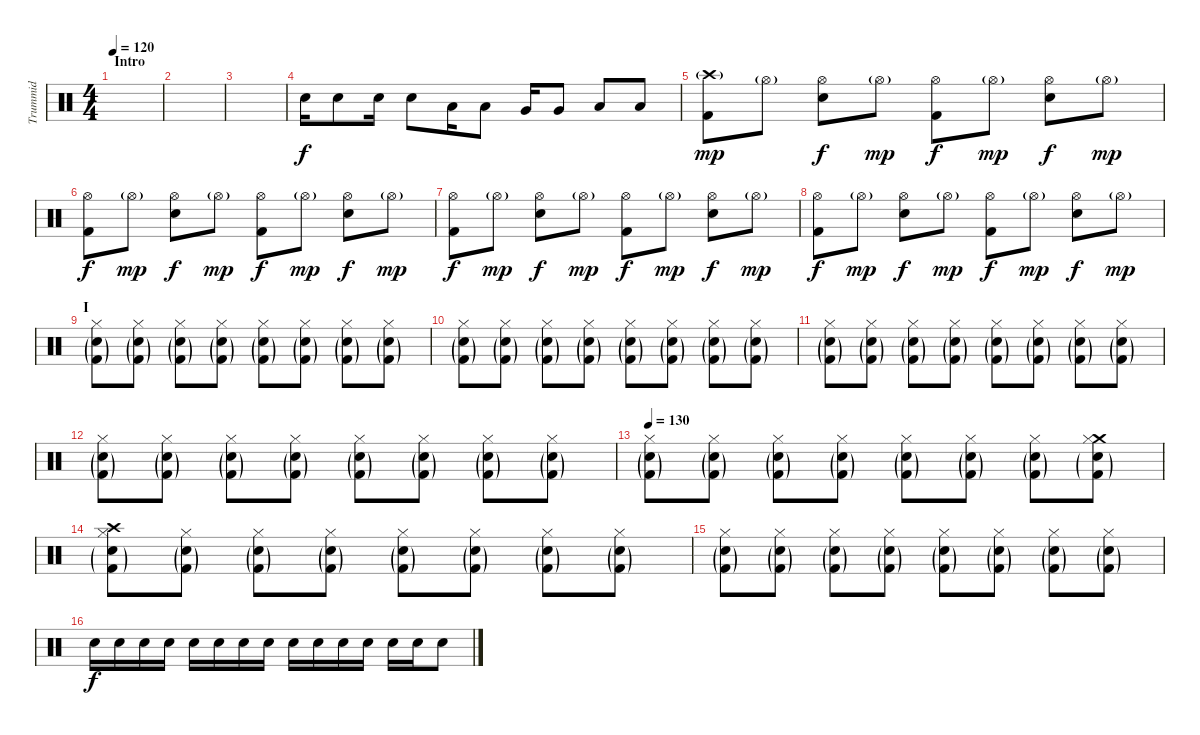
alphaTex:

\track ("Trummid" "Trummid") {instrument percussion}
\staff {score}
\articulation defaults
\ts (4 4)
\section ("" "Intro")
\tempo 120
\clef neutral
\ks c
|
|
|
"Snare (hit) 2".16 "Snare (hit) 2".8 "Snare (hit) 2".16 "Snare (hit) 2".8 "Low Tom (hit)".16 "Low Tom (hit)".8 "Very Low Tom (hit)".16 "Very Low Tom (hit)".8 "Low Tom (hit)".8 "Low Tom (hit)".8 |
("Crash high (hit)"{g} "Kick (hit) 2").8{dy mp} "Hi-Hat (open)"{g}.8 ("Hi-Hat (open)" "Snare (hit) 2").8{dy f} "Hi-Hat (open)"{g}.8{dy mp} ("Hi-Hat (open)" "Kick (hit) 2").8{dy f} "Hi-Hat (open)"{g}.8{dy mp} ("Hi-Hat (open)" "Snare (hit) 2").8{dy f} "Hi-Hat (open)"{g}.8{dy mp} |
("Hi-Hat (open)" "Kick (hit) 2").8{dy f} "Hi-Hat (open)"{g}.8{dy mp} ("Hi-Hat (open)" "Snare (hit) 2").8{dy f} "Hi-Hat (open)"{g}.8{dy mp} ("Hi-Hat (open)" "Kick (hit) 2").8{dy f} "Hi-Hat (open)"{g}.8{dy mp} ("Hi-Hat (open)" "Snare (hit) 2").8{dy f} "Hi-Hat (open)"{g}.8{dy mp} |
("Hi-Hat (open)" "Kick (hit) 2").8{dy f} "Hi-Hat (open)"{g}.8{dy mp} ("Hi-Hat (open)" "Snare (hit) 2").8{dy f} "Hi-Hat (open)"{g}.8{dy mp} ("Hi-Hat (open)" "Kick (hit) 2").8{dy f} "Hi-Hat (open)"{g}.8{dy mp} ("Hi-Hat (open)" "Snare (hit) 2").8{dy f} "Hi-Hat (open)"{g}.8{dy mp} |
("Hi-Hat (open)" "Kick (hit) 2").8{dy f} "Hi-Hat (open)"{g}.8{dy mp} ("Hi-Hat (open)" "Snare (hit) 2").8{dy f} "Hi-Hat (open)"{g}.8{dy mp} ("Hi-Hat (open)" "Kick (hit) 2").8{dy f} "Hi-Hat (open)"{g}.8{dy mp} ("Hi-Hat (open)" "Snare (hit) 2").8{dy f} "Hi-Hat (open)"{g}.8{dy mp} |
\section ("" "I")
("Hi-Hat (closed)" "Snare (hit) 2"{g} "Kick (hit) 2"{g}).8 ("Hi-Hat (closed)" "Snare (hit) 2"{g} "Kick (hit) 2"{g}).8 ("Hi-Hat (closed)" "Snare (hit) 2"{g} "Kick (hit) 2"{g}).8 ("Hi-Hat (closed)" "Snare (hit) 2"{g} "Kick (hit) 2"{g}).8 ("Hi-Hat (closed)" "Snare (hit) 2"{g} "Kick (hit) 2"{g}).8 ("Hi-Hat (closed)" "Snare (hit) 2"{g} "Kick (hit) 2"{g}).8 ("Hi-Hat (closed)" "Snare (hit) 2"{g} "Kick (hit) 2"{g}).8 ("Hi-Hat (closed)" "Snare (hit) 2"{g} "Kick (hit) 2"{g}).8 |
("Hi-Hat (closed)" "Snare (hit) 2"{g} "Kick (hit) 2"{g}).8 ("Hi-Hat (closed)" "Snare (hit) 2"{g} "Kick (hit) 2"{g}).8 ("Hi-Hat (closed)" "Snare (hit) 2"{g} "Kick (hit) 2"{g}).8 ("Hi-Hat (closed)" "Snare (hit) 2"{g} "Kick (hit) 2"{g}).8 ("Hi-Hat (closed)" "Snare (hit) 2"{g} "Kick (hit) 2"{g}).8 ("Hi-Hat (closed)" "Snare (hit) 2"{g} "Kick (hit) 2"{g}).8 ("Hi-Hat (closed)" "Snare (hit) 2"{g} "Kick (hit) 2"{g}).8 ("Hi-Hat (closed)" "Snare (hit) 2"{g} "Kick (hit) 2"{g}).8 |
("Hi-Hat (closed)" "Snare (hit) 2"{g} "Kick (hit) 2"{g}).8 ("Hi-Hat (closed)" "Snare (hit) 2"{g} "Kick (hit) 2"{g}).8 ("Hi-Hat (closed)" "Snare (hit) 2"{g} "Kick (hit) 2"{g}).8 ("Hi-Hat (closed)" "Snare (hit) 2"{g} "Kick (hit) 2"{g}).8 ("Hi-Hat (closed)" "Snare (hit) 2"{g} "Kick (hit) 2"{g}).8 ("Hi-Hat (closed)" "Snare (hit) 2"{g} "Kick (hit) 2"{g}).8 ("Hi-Hat (closed)" "Snare (hit) 2"{g} "Kick (hit) 2"{g}).8 ("Hi-Hat (closed)" "Snare (hit) 2"{g} "Kick (hit) 2"{g}).8 |
("Hi-Hat (closed)" "Snare (hit) 2"{g} "Kick (hit) 2"{g}).8 ("Hi-Hat (closed)" "Snare (hit) 2"{g} "Kick (hit) 2"{g}).8 ("Hi-Hat (closed)" "Snare (hit) 2"{g} "Kick (hit) 2"{g}).8 ("Hi-Hat (closed)" "Snare (hit) 2"{g} "Kick (hit) 2"{g}).8 ("Hi-Hat (closed)" "Snare (hit) 2"{g} "Kick (hit) 2"{g}).8 ("Hi-Hat (closed)" "Snare (hit) 2"{g} "Kick (hit) 2"{g}).8 ("Hi-Hat (closed)" "Snare (hit) 2"{g} "Kick (hit) 2"{g}).8 ("Hi-Hat (closed)" "Snare (hit) 2"{g} "Kick (hit) 2"{g}).8 |
\tempo 130
("Hi-Hat (closed)" "Snare (hit) 2"{g} "Kick (hit) 2"{g}).8 ("Hi-Hat (closed)" "Snare (hit) 2"{g} "Kick (hit) 2"{g}).8 ("Hi-Hat (closed)" "Snare (hit) 2"{g} "Kick (hit) 2"{g}).8 ("Hi-Hat (closed)" "Snare (hit) 2"{g} "Kick (hit) 2"{g}).8 ("Hi-Hat (closed)" "Snare (hit) 2"{g} "Kick (hit) 2"{g}).8 ("Hi-Hat (closed)" "Snare (hit) 2"{g} "Kick (hit) 2"{g}).8 ("Hi-Hat (closed)" "Snare (hit) 2"{g} "Kick (hit) 2"{g}).8 ("Crash medium (hit)" "Hi-Hat (closed)" "Snare (hit) 2"{g} "Kick (hit) 2"{g}).8 |
("Crash high (hit)" "Hi-Hat (closed)" "Snare (hit) 2"{g} "Kick (hit) 2"{g}).8 ("Hi-Hat (closed)" "Snare (hit) 2"{g} "Kick (hit) 2"{g}).8 ("Hi-Hat (closed)" "Snare (hit) 2"{g} "Kick (hit) 2"{g}).8 ("Hi-Hat (closed)" "Snare (hit) 2"{g} "Kick (hit) 2"{g}).8 ("Hi-Hat (closed)" "Snare (hit) 2"{g} "Kick (hit) 2"{g}).8 ("Hi-Hat (closed)" "Snare (hit) 2"{g} "Kick (hit) 2"{g}).8 ("Hi-Hat (closed)" "Snare (hit) 2"{g} "Kick (hit) 2"{g}).8 ("Hi-Hat (closed)" "Snare (hit) 2"{g} "Kick (hit) 2"{g}).8 |
("Hi-Hat (closed)" "Snare (hit) 2"{g} "Kick (hit) 2"{g}).8 ("Hi-Hat (closed)" "Snare (hit) 2"{g} "Kick (hit) 2"{g}).8 ("Hi-Hat (closed)" "Snare (hit) 2"{g} "Kick (hit) 2"{g}).8 ("Hi-Hat (closed)" "Snare (hit) 2"{g} "Kick (hit) 2"{g}).8 ("Hi-Hat (closed)" "Snare (hit) 2"{g} "Kick (hit) 2"{g}).8 ("Hi-Hat (closed)" "Snare (hit) 2"{g} "Kick (hit) 2"{g}).8 ("Hi-Hat (closed)" "Snare (hit) 2"{g} "Kick (hit) 2"{g}).8 ("Hi-Hat (closed)" "Snare (hit) 2"{g} "Kick (hit) 2"{g}).8 |
"Snare (hit) 2".16{dy f} "Snare (hit) 2".16 "Snare (hit) 2".16 "Snare (hit) 2".16 "Snare (hit) 2".16 "Snare (hit) 2".16 "Snare (hit) 2".16 "Snare (hit) 2".16 "Snare (hit) 2".16 "Snare (hit) 2".16 "Snare (hit) 2".16 "Snare (hit) 2".16 "Snare (hit) 2".16 "Snare (hit) 2".16 "Snare (hit) 2".8
